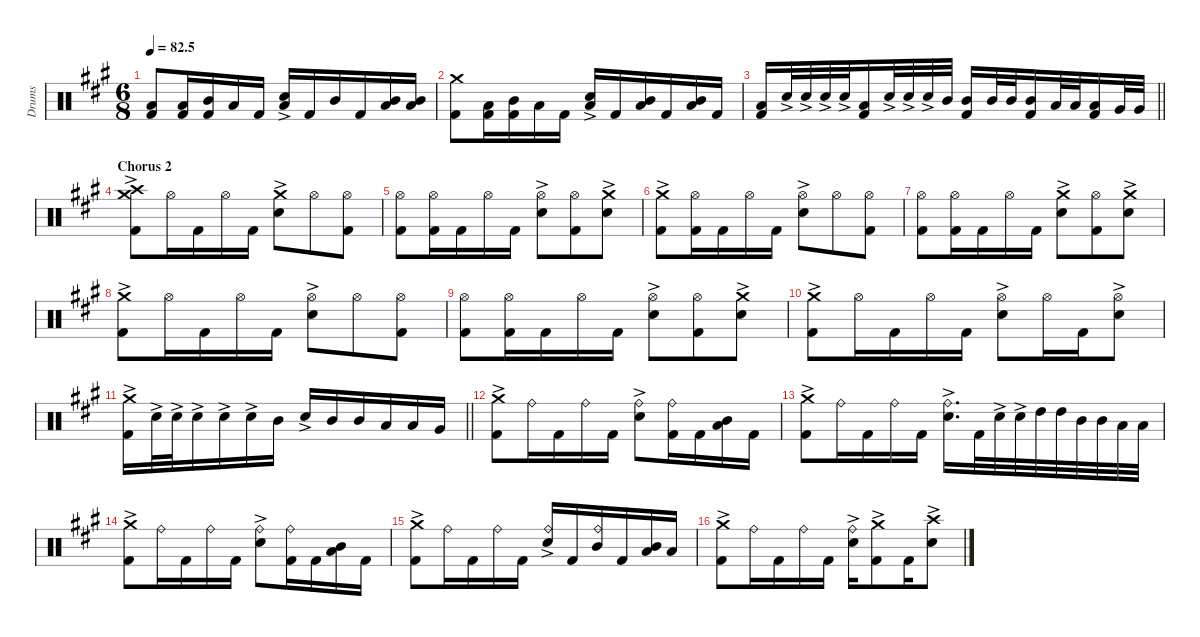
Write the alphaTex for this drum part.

\defaultSystemsLayout 4
\hideDynamics
\bracketExtendMode nobrackets
\otherSystemsTrackNameOrientation horizontal
\track ("Drumkit-show" "Drums") {defaultSystemsLayout 4 mute instrument percussion}
\staff {score}
\articulation defaults
\ts (6 8)
\tempo
82.5
\accidentals auto
\clef neutral
\ottava regular
\simile none
\ks a
("Low Tom (hit)"{acc forcenatural} "Kick (hit) 2"{acc forcenatural}).8{dy f beam Up} ("Low Tom (hit)"{acc forcenatural} "Kick (hit) 2"{acc forcenatural}).16{beam Up} ("Mid Tom (hit)"{acc forcenatural} "Kick (hit) 2"{acc forcenatural}).16{beam Up} "Low Tom (hit)"{acc forcenatural}.16{beam Up} "Kick (hit) 2"{acc forcenatural}.16{beam Up} ("Snare (hit) 2"{ac acc forcenatural} "Low Tom (hit)"{acc forcenatural}).16{beam Up} "Kick (hit) 2"{acc forcenatural}.16{beam Up} "Mid Tom (hit)"{acc forcenatural}.16{beam Up} "Kick (hit) 2"{acc forcenatural}.16{beam Up} ("Mid Tom (hit)"{acc forcenatural} "Low Tom (hit)"{acc forcenatural}).16{beam Up} ("Mid Tom (hit)"{acc forcenatural} "Low Tom (hit)"{acc forcenatural}).16{beam Up} |
("Crash medium (hit)"{acc forcenatural} "Kick (hit) 2"{acc forcenatural}).8{beam Down} ("Low Tom (hit)"{acc forcenatural} "Kick (hit) 2"{acc forcenatural}).16{beam Down} ("Mid Tom (hit)"{acc forcenatural} "Kick (hit) 2"{acc forcenatural}).16{beam Down} "Low Tom (hit)"{acc forcenatural}.16{beam Down} "Kick (hit) 2"{acc forcenatural}.16{beam Down} ("Snare (hit) 2"{ac acc forcenatural} "Low Tom (hit)"{acc forcenatural}).16{beam Up} "Kick (hit) 2"{acc forcenatural}.16{beam Up} ("Mid Tom (hit)"{acc forcenatural} "Low Tom (hit)"{acc forcenatural}).16{beam Up} "Kick (hit) 2"{acc forcenatural}.16{beam Up} ("Mid Tom (hit)"{acc forcenatural} "Low Tom (hit)"{acc forcenatural}).16{beam Up} "Kick (hit) 2"{acc forcenatural}.16{beam Up} |
\barLineRight lightlight
("Low Tom (hit)"{acc forcenatural} "Kick (hit) 2"{acc forcenatural}).16{beam Up} "Snare (hit) 2"{ac acc forcenatural}.32{beam Up} "Snare (hit) 2"{ac acc forcenatural}.32{beam Up} "Snare (hit) 2"{ac acc forcenatural}.32{beam Up} "Snare (hit) 2"{ac acc forcenatural}.32{beam Up} ("Low Tom (hit)"{acc forcenatural} "Kick (hit) 2"{acc forcenatural}).16{beam Up} "Snare (hit) 2"{ac acc forcenatural}.32{beam Up} "Snare (hit) 2"{ac acc forcenatural}.32{beam Up} "Snare (hit) 2"{ac acc forcenatural}.32{beam Up} "Mid Tom (hit)"{acc forcenatural}.32{beam Up} ("Mid Tom (hit)"{acc forcenatural} "Kick (hit) 2"{acc forcenatural}).16{beam Up} "Mid Tom (hit)"{acc forcenatural}.32{beam Up} "Mid Tom (hit)"{acc forcenatural}.32{beam Up} ("Mid Tom (hit)"{acc forcenatural} "Kick (hit) 2"{acc forcenatural}).16{beam Up} "Low Tom (hit)"{acc forcenatural}.32{beam Up} "Low Tom (hit)"{acc forcenatural}.32{beam Up} ("Low Tom (hit)"{acc forcenatural} "Kick (hit) 2"{acc forcenatural}).16{beam Up} "Very Low Tom (hit)"{acc forcenatural}.32{beam Up} "Very Low Tom (hit)"{acc forcenatural}.32{beam Up} |
\section ("" "Chorus 2")
("Crash medium (hit)"{ac acc forcenatural} "Crash high (hit)"{acc forcenatural} "Kick (hit) 2"{acc forcenatural}).8{beam Down} "Hi-Hat (open)"{acc forcenatural}.16{beam Down} "Kick (hit) 2"{acc forcenatural}.16{beam Down} "Hi-Hat (open)"{acc forcenatural}.16{beam Down} "Kick (hit) 2"{acc forcenatural}.16{beam Down} ("Crash medium (hit)"{ac acc forcenatural} "Snare (hit) 2"{ac acc forcenatural}).8{beam Down} "Hi-Hat (open)"{acc forcenatural}.8{beam Down} ("Hi-Hat (open)"{acc forcenatural} "Kick (hit) 2"{acc forcenatural}).8{beam Down} |
("Hi-Hat (open)"{acc forcenatural} "Kick (hit) 2"{acc forcenatural}).8{beam Down} ("Hi-Hat (open)"{acc forcenatural} "Kick (hit) 2"{acc forcenatural}).16{beam Down} "Kick (hit) 2"{acc forcenatural}.16{beam Down} "Hi-Hat (open)"{acc forcenatural}.16{beam Down} "Kick (hit) 2"{acc forcenatural}.16{beam Down} ("Hi-Hat (open)"{acc forcenatural} "Snare (hit) 2"{ac acc forcenatural}).8{beam Down} ("Hi-Hat (open)"{acc forcenatural} "Kick (hit) 2"{acc forcenatural}).8{beam Down} ("Crash medium (hit)"{ac acc forcenatural} "Snare (hit) 2"{ac acc forcenatural}).8{beam Down} |
("Crash medium (hit)"{ac acc forcenatural} "Kick (hit) 2"{acc forcenatural}).8{beam Down} ("Hi-Hat (open)"{acc forcenatural} "Kick (hit) 2"{acc forcenatural}).16{beam Down} "Kick (hit) 2"{acc forcenatural}.16{beam Down} "Hi-Hat (open)"{acc forcenatural}.16{beam Down} "Kick (hit) 2"{acc forcenatural}.16{beam Down} ("Hi-Hat (open)"{acc forcenatural} "Snare (hit) 2"{ac acc forcenatural}).8{beam Down} "Hi-Hat (open)"{acc forcenatural}.8{beam Down} ("Hi-Hat (open)"{acc forcenatural} "Kick (hit) 2"{acc forcenatural}).8{beam Down} |
("Hi-Hat (open)"{acc forcenatural} "Kick (hit) 2"{acc forcenatural}).8{beam Down} ("Hi-Hat (open)"{acc forcenatural} "Kick (hit) 2"{acc forcenatural}).16{beam Down} "Kick (hit) 2"{acc forcenatural}.16{beam Down} "Hi-Hat (open)"{acc forcenatural}.16{beam Down} "Kick (hit) 2"{acc forcenatural}.16{beam Down} ("Crash medium (hit)"{ac acc forcenatural} "Snare (hit) 2"{ac acc forcenatural}).8{beam Down} ("Hi-Hat (open)"{acc forcenatural} "Kick (hit) 2"{acc forcenatural}).8{beam Down} ("Crash medium (hit)"{ac acc forcenatural} "Snare (hit) 2"{ac acc forcenatural}).8{beam Down} |
("Crash medium (hit)"{ac acc forcenatural} "Kick (hit) 2"{acc forcenatural}).8{beam Down} "Hi-Hat (open)"{acc forcenatural}.16{beam Down} "Kick (hit) 2"{acc forcenatural}.16{beam Down} "Hi-Hat (open)"{acc forcenatural}.16{beam Down} "Kick (hit) 2"{acc forcenatural}.16{beam Down} ("Hi-Hat (open)"{acc forcenatural} "Snare (hit) 2"{ac acc forcenatural}).8{beam Down} "Hi-Hat (open)"{acc forcenatural}.8{beam Down} ("Hi-Hat (open)"{acc forcenatural} "Kick (hit) 2"{acc forcenatural}).8{beam Down} |
("Hi-Hat (open)"{acc forcenatural} "Kick (hit) 2"{acc forcenatural}).8{beam Down} ("Hi-Hat (open)"{acc forcenatural} "Kick (hit) 2"{acc forcenatural}).16{beam Down} "Kick (hit) 2"{acc forcenatural}.16{beam Down} "Hi-Hat (open)"{acc forcenatural}.16{beam Down} "Kick (hit) 2"{acc forcenatural}.16{beam Down} ("Hi-Hat (open)"{acc forcenatural} "Snare (hit) 2"{ac acc forcenatural}).8{beam Down} ("Hi-Hat (open)"{acc forcenatural} "Kick (hit) 2"{acc forcenatural}).8{beam Down} ("Crash medium (hit)"{ac acc forcenatural} "Snare (hit) 2"{ac acc forcenatural}).8{beam Down} |
("Crash medium (hit)"{ac acc forcenatural} "Kick (hit) 2"{acc forcenatural}).8{beam Down} "Hi-Hat (open)"{acc forcenatural}.16{beam Down} "Kick (hit) 2"{acc forcenatural}.16{beam Down} "Hi-Hat (open)"{acc forcenatural}.16{beam Down} "Kick (hit) 2"{acc forcenatural}.16{beam Down} ("Hi-Hat (open)"{acc forcenatural} "Snare (hit) 2"{ac acc forcenatural}).8{beam Down} "Hi-Hat (open)"{acc forcenatural}.16{beam Down} "Kick (hit) 2"{acc forcenatural}.16{beam Down} ("Hi-Hat (open)"{acc forcenatural} "Snare (hit) 2"{ac acc forcenatural}).8{beam Down} |
\barLineRight lightlight
("Crash medium (hit)"{ac acc forcenatural} "Kick (hit) 2"{acc forcenatural}).16{beam Down} "Snare (hit) 2"{ac acc forcenatural}.32{beam Down} "Snare (hit) 2"{ac acc forcenatural}.32{beam Down} "Snare (hit) 2"{ac acc forcenatural}.16{beam Down} "Snare (hit) 2"{ac acc forcenatural}.16{beam Down} "Snare (hit) 2"{ac acc forcenatural}.16{beam Down} "Mid Tom (hit)"{acc forcenatural}.16{beam Down} "Snare (hit) 2"{ac acc forcenatural}.16{beam Up} "Mid Tom (hit)"{acc forcenatural}.16{beam Up} "Mid Tom (hit)"{acc forcenatural}.16{beam Up} "Low Tom (hit)"{acc forcenatural}.16{beam Up} "Low Tom (hit)"{acc forcenatural}.16{beam Up} "Very Low Tom (hit)"{acc forcenatural}.16{beam Up} |
("Crash medium (hit)"{ac acc forcenatural} "Kick (hit) 2"{acc forcenatural}).8{beam Down} "Ride (bell)"{acc forcenatural}.16{beam Down} "Kick (hit) 2"{acc forcenatural}.16{beam Down} "Ride (bell)"{acc forcenatural}.16{beam Down} "Kick (hit) 2"{acc forcenatural}.16{beam Down} ("Ride (bell)"{acc forcenatural} "Snare (hit) 2"{ac acc forcenatural}).8{beam Down} ("Ride (bell)"{acc forcenatural} "Kick (hit) 2"{acc forcenatural}).16{beam Down} "Kick (hit) 2"{acc forcenatural}.16{beam Down} ("Mid Tom (hit)"{acc forcenatural} "Low Tom (hit)"{acc forcenatural}).16{beam Down} "Kick (hit) 2"{acc forcenatural}.16{beam Down} |
("Crash medium (hit)"{ac acc forcenatural} "Kick (hit) 2"{acc forcenatural}).8{beam Down} "Ride (bell)"{acc forcenatural}.16{beam Down} "Kick (hit) 2"{acc forcenatural}.16{beam Down} "Ride (bell)"{acc forcenatural}.16{beam Down} "Kick (hit) 2"{acc forcenatural}.16{beam Down} ("Ride (bell)"{acc forcenatural} "Snare (hit) 2"{ac acc forcenatural}).16{d beam Down} "Kick (hit) 2"{acc forcenatural}.32{beam Down} "Snare (hit) 2"{ac acc forcenatural}.32{beam Down} "Snare (hit) 2"{ac acc forcenatural}.32{beam Down} "High Tom (hit)"{acc forcenatural}.32{beam Down} "High Tom (hit)"{acc forcenatural}.32{beam Down} "Mid Tom (hit)"{acc forcenatural}.32{beam Down} "Mid Tom (hit)"{acc forcenatural}.32{beam Down} "Low Tom (hit)"{acc forcenatural}.32{beam Down} "Low Tom (hit)"{acc forcenatural}.32{beam Down} |
("Crash medium (hit)"{ac acc forcenatural} "Kick (hit) 2"{acc forcenatural}).8{beam Down} "Ride (bell)"{acc forcenatural}.16{beam Down} "Kick (hit) 2"{acc forcenatural}.16{beam Down} "Ride (bell)"{acc forcenatural}.16{beam Down} "Kick (hit) 2"{acc forcenatural}.16{beam Down} ("Ride (bell)"{acc forcenatural} "Snare (hit) 2"{ac acc forcenatural}).8{beam Down} ("Ride (bell)"{acc forcenatural} "Kick (hit) 2"{acc forcenatural}).16{beam Down} "Kick (hit) 2"{acc forcenatural}.16{beam Down} ("Mid Tom (hit)"{acc forcenatural} "Low Tom (hit)"{acc forcenatural}).16{beam Down} "Kick (hit) 2"{acc forcenatural}.16{beam Down} |
("Crash medium (hit)"{ac acc forcenatural} "Kick (hit) 2"{acc forcenatural}).8{beam Down} "Ride (bell)"{acc forcenatural}.16{beam Down} "Kick (hit) 2"{acc forcenatural}.16{beam Down} "Ride (bell)"{acc forcenatural}.16{beam Down} "Kick (hit) 2"{acc forcenatural}.16{beam Down} ("Ride (bell)"{acc forcenatural} "Snare (hit) 2"{ac acc forcenatural}).16{beam Up} "Kick (hit) 2"{acc forcenatural}.16{beam Up} ("Ride (bell)"{acc forcenatural} "Mid Tom (hit)"{acc forcenatural}).16{beam Up} "Kick (hit) 2"{acc forcenatural}.16{beam Up} ("Mid Tom (hit)"{acc forcenatural} "Low Tom (hit)"{acc forcenatural}).16{beam Up} "Low Tom (hit)"{acc forcenatural}.16{beam Up} |
("Crash medium (hit)"{ac acc forcenatural} "Kick (hit) 2"{acc forcenatural}).8{beam Down} "Ride (bell)"{acc forcenatural}.16{beam Down} "Kick (hit) 2"{acc forcenatural}.16{beam Down} "Ride (bell)"{acc forcenatural}.16{beam Down} "Kick (hit) 2"{acc forcenatural}.16{beam Down} ("Ride (bell)"{acc forcenatural} "Snare (hit) 2"{ac acc forcenatural}).16{beam Down} ("Crash medium (hit)"{ac acc forcenatural} "Kick (hit) 2"{acc forcenatural}).8{beam Down} "Kick (hit) 2"{acc forcenatural}.16{beam Down} ("Crash high (hit)"{acc forcenatural} "Snare (hit) 2"{ac acc forcenatural}).8{beam Down}
